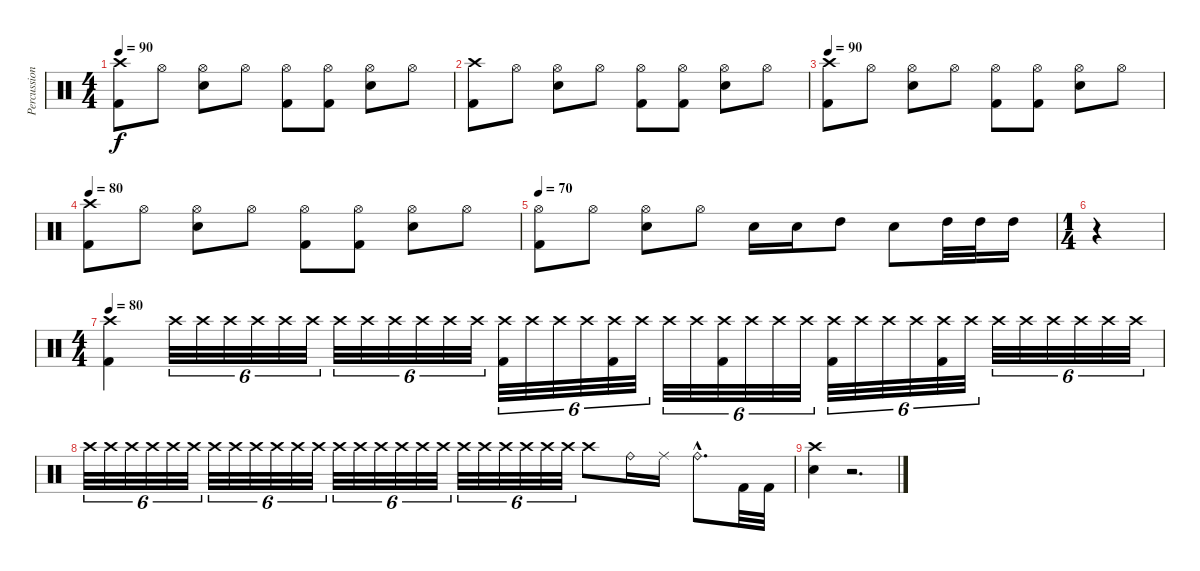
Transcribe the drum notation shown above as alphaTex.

\track ("Percussion" "Percussion") {instrument percussion}
\staff {score}
\articulation defaults
\ts (4 4)
\tempo 90
\clef neutral
\ks c
("Crash high (hit)" "Kick (hit) 2").8{dy f} "Hi-Hat (open)".8 ("Hi-Hat (open)" "Electric Snare (hit)").8 "Hi-Hat (open)".8 ("Hi-Hat (open)" "Kick (hit) 2").8 ("Hi-Hat (open)" "Kick (hit) 2").8 ("Hi-Hat (open)" "Electric Snare (hit)").8 "Hi-Hat (open)".8 |
("Crash high (hit)" "Kick (hit) 2").8 "Hi-Hat (open)".8 ("Hi-Hat (open)" "Electric Snare (hit)").8 "Hi-Hat (open)".8 ("Hi-Hat (open)" "Kick (hit) 2").8 ("Hi-Hat (open)" "Kick (hit) 2").8 ("Hi-Hat (open)" "Electric Snare (hit)").8 "Hi-Hat (open)".8 |
\tempo 90
("Crash high (hit)" "Kick (hit) 2").8 "Hi-Hat (open)".8 ("Hi-Hat (open)" "Electric Snare (hit)").8 "Hi-Hat (open)".8 ("Hi-Hat (open)" "Kick (hit) 2").8 ("Hi-Hat (open)" "Kick (hit) 2").8 ("Hi-Hat (open)" "Electric Snare (hit)").8 "Hi-Hat (open)".8 |
\tempo 80
("Crash high (hit)" "Kick (hit) 2").8 "Hi-Hat (open)".8 ("Hi-Hat (open)" "Electric Snare (hit)").8 "Hi-Hat (open)".8 ("Hi-Hat (open)" "Kick (hit) 2").8 ("Hi-Hat (open)" "Kick (hit) 2").8 ("Hi-Hat (open)" "Electric Snare (hit)").8 "Hi-Hat (open)".8 |
\tempo 70
("Hi-Hat (open)" "Kick (hit) 2").8 "Hi-Hat (open)".8 ("Hi-Hat (open)" "Electric Snare (hit)").8 "Hi-Hat (open)".8 "Electric Snare (hit)".16 "Electric Snare (hit)".16 "High Tom (hit)".8 "Electric Snare (hit)".8 "High Tom (hit)".32 "High Tom (hit)".32 "High Tom (hit)".16 |
\ts (1 4)
r.4 |
\ts (4 4)
\tempo 80
("Crash high (hit)" "Kick (hit) 2").4 "Crash high (hit)".32{tu (6 4)} "Crash high (hit)".32{tu (6 4)} "Crash high (hit)".32{tu (6 4)} "Crash high (hit)".32{tu (6 4)} "Crash high (hit)".32{tu (6 4)} "Crash high (hit)".32{tu (6 4)} "Crash high (hit)".32{tu (6 4)} "Crash high (hit)".32{tu (6 4)} "Crash high (hit)".32{tu (6 4)} "Crash high (hit)".32{tu (6 4)} "Crash high (hit)".32{tu (6 4)} "Crash high (hit)".32{tu (6 4)} ("Crash high (hit)" "Kick (hit) 2").32{tu (6 4)} "Crash high (hit)".32{tu (6 4)} "Crash high (hit)".32{tu (6 4)} "Crash high (hit)".32{tu (6 4)} ("Crash high (hit)" "Kick (hit) 2").32{tu (6 4)} "Crash high (hit)".32{tu (6 4)} "Crash high (hit)".32{tu (6 4)} "Crash high (hit)".32{tu (6 4)} ("Crash high (hit)" "Kick (hit) 2").32{tu (6 4)} "Crash high (hit)".32{tu (6 4)} "Crash high (hit)".32{tu (6 4)} "Crash high (hit)".32{tu (6 4)} ("Crash high (hit)" "Kick (hit) 2").32{tu (6 4)} "Crash high (hit)".32{tu (6 4)} "Crash high (hit)".32{tu (6 4)} "Crash high (hit)".32{tu (6 4)} ("Crash high (hit)" "Kick (hit) 2").32{tu (6 4)} "Crash high (hit)".32{tu (6 4)} "Crash high (hit)".32{tu (6 4)} "Crash high (hit)".32{tu (6 4)} "Crash high (hit)".32{tu (6 4)} "Crash high (hit)".32{tu (6 4)} "Crash high (hit)".32{tu (6 4)} "Crash high (hit)".32{tu (6 4)} |
"Crash high (hit)".32{tu (6 4)} "Crash high (hit)".32{tu (6 4)} "Crash high (hit)".32{tu (6 4)} "Crash high (hit)".32{tu (6 4)} "Crash high (hit)".32{tu (6 4)} "Crash high (hit)".32{tu (6 4)} "Crash high (hit)".32{tu (6 4)} "Crash high (hit)".32{tu (6 4)} "Crash high (hit)".32{tu (6 4)} "Crash high (hit)".32{tu (6 4)} "Crash high (hit)".32{tu (6 4)} "Crash high (hit)".32{tu (6 4)} "Crash high (hit)".32{tu (6 4)} "Crash high (hit)".32{tu (6 4)} "Crash high (hit)".32{tu (6 4)} "Crash high (hit)".32{tu (6 4)} "Crash high (hit)".32{tu (6 4)} "Crash high (hit)".32{tu (6 4)} "Crash high (hit)".32{tu (6 4)} "Crash high (hit)".32{tu (6 4)} "Crash high (hit)".32{tu (6 4)} "Crash high (hit)".32{tu (6 4)} "Crash high (hit)".32{tu (6 4)} "Crash high (hit)".32{tu (6 4)} "Crash high (hit)".8 "Ride (bell)".16 "Ride (middle)".16 "Ride (bell)"{hac}.8{d} "Kick (hit) 2".32 "Kick (hit) 2".32 |
("Crash high (hit)" "Electric Snare (hit)").4 r.2{d}
